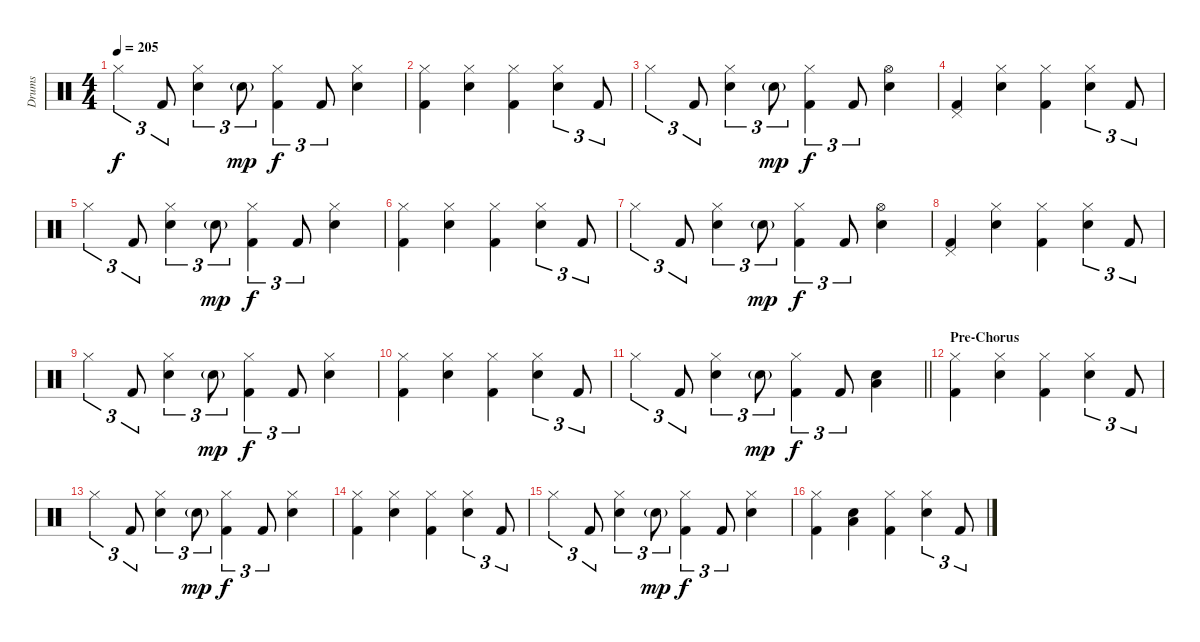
\track ("Drums" "Drums") {instrument percussion}
\staff {score}
\articulation defaults
\ts (4 4)
\tempo 205
\clef neutral
\ks c "Hi-Hat (closed)".4{tu (3 2) dy f} "Kick (hit) 2".8{tu (3 2)}
("Hi-Hat (closed)" "Electric Snare (hit)").4{tu (3 2)} "Electric Snare (hit)"{g}.8{tu (3 2) dy mp} ("Hi-Hat (closed)" "Kick (hit) 2").4{tu (3 2) dy f} "Kick (hit) 2".8{tu (3 2)} ("Hi-Hat (closed)" "Electric Snare (hit)").4 |
("Hi-Hat (closed)" "Kick (hit) 2").4 ("Hi-Hat (closed)" "Electric Snare (hit)").4 ("Hi-Hat (closed)" "Kick (hit) 2").4 ("Hi-Hat (closed)" "Electric Snare (hit)").4{tu (3 2)} "Kick (hit) 2".8{tu (3 2)} |
"Hi-Hat (closed)".4{tu (3 2)} "Kick (hit) 2".8{tu (3 2)} ("Hi-Hat (closed)" "Electric Snare (hit)").4{tu (3 2)} "Electric Snare (hit)"{g}.8{tu (3 2) dy mp} ("Hi-Hat (closed)" "Kick (hit) 2").4{tu (3 2) dy f} "Kick (hit) 2".8{tu (3 2)} ("Hi-Hat (open)" "Electric Snare (hit)").4 |
("Pedal Hi-Hat (hit)" "Kick (hit) 2").4 ("Hi-Hat (closed)" "Electric Snare (hit)").4 ("Hi-Hat (closed)" "Kick (hit) 2").4 ("Hi-Hat (closed)" "Electric Snare (hit)").4{tu (3 2)} "Kick (hit) 2".8{tu (3 2)} |
"Hi-Hat (closed)".4{tu (3 2)} "Kick (hit) 2".8{tu (3 2)} ("Hi-Hat (closed)" "Electric Snare (hit)").4{tu (3 2)} "Electric Snare (hit)"{g}.8{tu (3 2) dy mp} ("Hi-Hat (closed)" "Kick (hit) 2").4{tu (3 2) dy f} "Kick (hit) 2".8{tu (3 2)} ("Hi-Hat (closed)" "Electric Snare (hit)").4 |
("Hi-Hat (closed)" "Kick (hit) 2").4 ("Hi-Hat (closed)" "Electric Snare (hit)").4 ("Hi-Hat (closed)" "Kick (hit) 2").4 ("Hi-Hat (closed)" "Electric Snare (hit)").4{tu (3 2)} "Kick (hit) 2".8{tu (3 2)} |
"Hi-Hat (closed)".4{tu (3 2)} "Kick (hit) 2".8{tu (3 2)} ("Hi-Hat (closed)" "Electric Snare (hit)").4{tu (3 2)} "Electric Snare (hit)"{g}.8{tu (3 2) dy mp} ("Hi-Hat (closed)" "Kick (hit) 2").4{tu (3 2) dy f} "Kick (hit) 2".8{tu (3 2)} ("Hi-Hat (open)" "Electric Snare (hit)").4 |
("Pedal Hi-Hat (hit)" "Kick (hit) 2").4 ("Hi-Hat (closed)" "Electric Snare (hit)").4 ("Hi-Hat (closed)" "Kick (hit) 2").4 ("Hi-Hat (closed)" "Electric Snare (hit)").4{tu (3 2)} "Kick (hit) 2".8{tu (3 2)} |
"Hi-Hat (closed)".4{tu (3 2)} "Kick (hit) 2".8{tu (3 2)} ("Hi-Hat (closed)" "Electric Snare (hit)").4{tu (3 2)} "Electric Snare (hit)"{g}.8{tu (3 2) dy mp} ("Hi-Hat (closed)" "Kick (hit) 2").4{tu (3 2) dy f} "Kick (hit) 2".8{tu (3 2)} ("Hi-Hat (closed)" "Electric Snare (hit)").4 |
("Hi-Hat (closed)" "Kick (hit) 2").4 ("Hi-Hat (closed)" "Electric Snare (hit)").4 ("Hi-Hat (closed)" "Kick (hit) 2").4 ("Hi-Hat (closed)" "Electric Snare (hit)").4{tu (3 2)} "Kick (hit) 2".8{tu (3 2)} |
\barLineRight lightlight "Hi-Hat (closed)".4{tu (3 2)} "Kick (hit) 2".8{tu (3 2)}
("Hi-Hat (closed)" "Electric Snare (hit)").4{tu (3 2)} "Electric Snare (hit)"{g}.8{tu (3 2) dy mp} ("Hi-Hat (closed)" "Kick (hit) 2").4{tu (3 2) dy f} "Kick (hit) 2".8{tu (3 2)} ("Low Floor Tom (hit)" "Electric Snare (hit)").4 |
\section ("" "Pre-Chorus")
("Hi-Hat (closed)" "Kick (hit) 2").4 ("Hi-Hat (closed)" "Electric Snare (hit)").4 ("Hi-Hat (closed)" "Kick (hit) 2").4 ("Hi-Hat (closed)" "Electric Snare (hit)").4{tu (3 2)} "Kick (hit) 2".8{tu (3 2)} |
"Hi-Hat (closed)".4{tu (3 2)} "Kick (hit) 2".8{tu (3 2)} ("Hi-Hat (closed)" "Electric Snare (hit)").4{tu (3 2)} "Electric Snare (hit)"{g}.8{tu (3 2) dy mp} ("Hi-Hat (closed)" "Kick (hit) 2").4{tu (3 2) dy f} "Kick (hit) 2".8{tu (3 2)} ("Hi-Hat (closed)" "Electric Snare (hit)").4 |
("Hi-Hat (closed)" "Kick (hit) 2").4 ("Hi-Hat (closed)" "Electric Snare (hit)").4 ("Hi-Hat (closed)" "Kick (hit) 2").4 ("Hi-Hat (closed)" "Electric Snare (hit)").4{tu (3 2)} "Kick (hit) 2".8{tu (3 2)} |
"Hi-Hat (closed)".4{tu (3 2)} "Kick (hit) 2".8{tu (3 2)} ("Hi-Hat (closed)" "Electric Snare (hit)").4{tu (3 2)} "Electric Snare (hit)"{g}.8{tu (3 2) dy mp} ("Hi-Hat (closed)" "Kick (hit) 2").4{tu (3 2) dy f} "Kick (hit) 2".8{tu (3 2)} ("Hi-Hat (closed)" "Electric Snare (hit)").4 |
("Hi-Hat (closed)" "Kick (hit) 2").4 ("Low Floor Tom (hit)" "Electric Snare (hit)").4 ("Hi-Hat (closed)" "Kick (hit) 2").4 ("Hi-Hat (closed)" "Electric Snare (hit)").4{tu (3 2)} "Kick (hit) 2".8{tu (3 2)}
